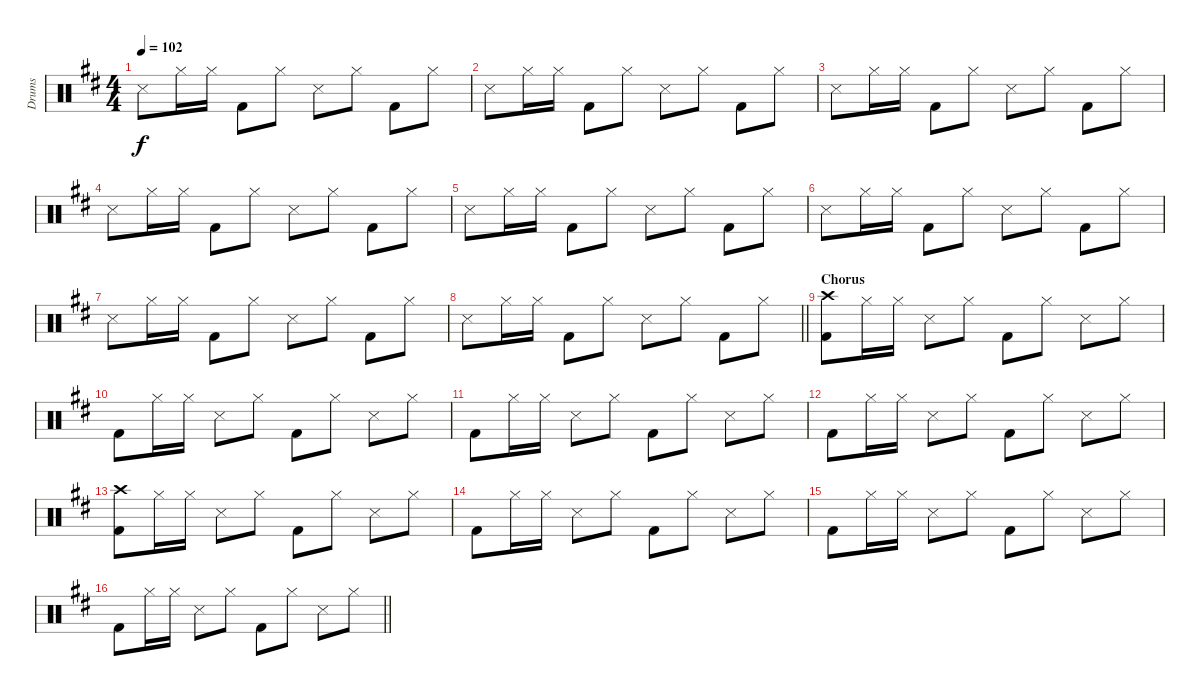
\track ("Drums" "Drums") {instrument percussion}
\staff {score}
\articulation defaults
\ts (4 4)
\tempo 102
\clef neutral
\ks d "Snare (side stick) 3".8{dy f} "Hi-Hat (closed)".16 "Hi-Hat (closed)".16 "Kick (hit) 2".8 "Hi-Hat (closed)".8 "Snare (side stick) 3".8 "Hi-Hat (closed)".8 "Kick (hit) 2".8 "Hi-Hat (closed)".8
|
"Snare (side stick) 3".8 "Hi-Hat (closed)".16 "Hi-Hat (closed)".16 "Kick (hit) 2".8 "Hi-Hat (closed)".8 "Snare (side stick) 3".8 "Hi-Hat (closed)".8 "Kick (hit) 2".8 "Hi-Hat (closed)".8 |
"Snare (side stick) 3".8 "Hi-Hat (closed)".16 "Hi-Hat (closed)".16 "Kick (hit) 2".8 "Hi-Hat (closed)".8 "Snare (side stick) 3".8 "Hi-Hat (closed)".8 "Kick (hit) 2".8 "Hi-Hat (closed)".8 |
"Snare (side stick) 3".8 "Hi-Hat (closed)".16 "Hi-Hat (closed)".16 "Kick (hit) 2".8 "Hi-Hat (closed)".8 "Snare (side stick) 3".8 "Hi-Hat (closed)".8 "Kick (hit) 2".8 "Hi-Hat (closed)".8 |
"Snare (side stick) 3".8 "Hi-Hat (closed)".16 "Hi-Hat (closed)".16 "Kick (hit) 2".8 "Hi-Hat (closed)".8 "Snare (side stick) 3".8 "Hi-Hat (closed)".8 "Kick (hit) 2".8 "Hi-Hat (closed)".8 |
"Snare (side stick) 3".8 "Hi-Hat (closed)".16 "Hi-Hat (closed)".16 "Kick (hit) 2".8 "Hi-Hat (closed)".8 "Snare (side stick) 3".8 "Hi-Hat (closed)".8 "Kick (hit) 2".8 "Hi-Hat (closed)".8 |
"Snare (side stick) 3".8 "Hi-Hat (closed)".16 "Hi-Hat (closed)".16 "Kick (hit) 2".8 "Hi-Hat (closed)".8 "Snare (side stick) 3".8 "Hi-Hat (closed)".8 "Kick (hit) 2".8 "Hi-Hat (closed)".8 |
\barLineRight lightlight "Snare (side stick) 3".8 "Hi-Hat (closed)".16 "Hi-Hat (closed)".16 "Kick (hit) 2".8 "Hi-Hat (closed)".8 "Snare (side stick) 3".8 "Hi-Hat (closed)".8 "Kick (hit) 2".8 "Hi-Hat (closed)".8
|
\section ("" "Chorus")
("Crash high (hit)" "Kick (hit) 2").8 "Hi-Hat (closed)".16 "Hi-Hat (closed)".16 "Snare (side stick) 3".8 "Hi-Hat (closed)".8 "Kick (hit) 2".8 "Hi-Hat (closed)".8 "Snare (side stick) 3".8 "Hi-Hat (closed)".8 |
"Kick (hit) 2".8 "Hi-Hat (closed)".16 "Hi-Hat (closed)".16 "Snare (side stick) 3".8 "Hi-Hat (closed)".8 "Kick (hit) 2".8 "Hi-Hat (closed)".8 "Snare (side stick) 3".8 "Hi-Hat (closed)".8 |
"Kick (hit) 2".8 "Hi-Hat (closed)".16 "Hi-Hat (closed)".16 "Snare (side stick) 3".8 "Hi-Hat (closed)".8 "Kick (hit) 2".8 "Hi-Hat (closed)".8 "Snare (side stick) 3".8 "Hi-Hat (closed)".8 |
"Kick (hit) 2".8 "Hi-Hat (closed)".16 "Hi-Hat (closed)".16 "Snare (side stick) 3".8 "Hi-Hat (closed)".8 "Kick (hit) 2".8 "Hi-Hat (closed)".8 "Snare (side stick) 3".8 "Hi-Hat (closed)".8 |
("Crash high (hit)" "Kick (hit) 2").8 "Hi-Hat (closed)".16 "Hi-Hat (closed)".16 "Snare (side stick) 3".8 "Hi-Hat (closed)".8 "Kick (hit) 2".8 "Hi-Hat (closed)".8 "Snare (side stick) 3".8 "Hi-Hat (closed)".8 |
"Kick (hit) 2".8 "Hi-Hat (closed)".16 "Hi-Hat (closed)".16 "Snare (side stick) 3".8 "Hi-Hat (closed)".8 "Kick (hit) 2".8 "Hi-Hat (closed)".8 "Snare (side stick) 3".8 "Hi-Hat (closed)".8 |
"Kick (hit) 2".8 "Hi-Hat (closed)".16 "Hi-Hat (closed)".16 "Snare (side stick) 3".8 "Hi-Hat (closed)".8 "Kick (hit) 2".8 "Hi-Hat (closed)".8 "Snare (side stick) 3".8 "Hi-Hat (closed)".8 |
\barLineRight lightlight "Kick (hit) 2".8 "Hi-Hat (closed)".16 "Hi-Hat (closed)".16 "Snare (side stick) 3".8 "Hi-Hat (closed)".8 "Kick (hit) 2".8 "Hi-Hat (closed)".8 "Snare (side stick) 3".8 "Hi-Hat (closed)".8
